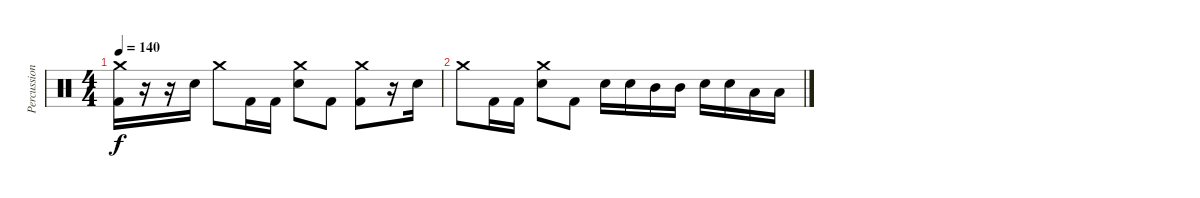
\track ("Percussions" "Percussion") {instrument percussion}
\staff {score}
\articulation defaults
\ts (4 4)
\tempo 140
\clef neutral
\ks c
("Kick (hit) 2" "Crash medium (hit)").16{dy f} r.16 r.16 "Electric Snare (hit)".16 "Crash medium (hit)".8 "Kick (hit) 2".16 "Kick (hit) 2".16 ("Electric Snare (hit)" "Crash medium (hit)").8 "Kick (hit) 2".8 ("Kick (hit) 2" "Crash medium (hit)").8 r.16 "Electric Snare (hit)".16 |
"Crash medium (hit)".8 "Kick (hit) 2".16 "Kick (hit) 2".16 ("Electric Snare (hit)" "Crash medium (hit)").8 "Kick (hit) 2".8 "Electric Snare (hit)".16 "Electric Snare (hit)".16 "Mid Tom (hit)".16 "Mid Tom (hit)".16 "Electric Snare (hit)".16 "Electric Snare (hit)".16 "Low Tom (hit)".16 "Low Tom (hit)".16
